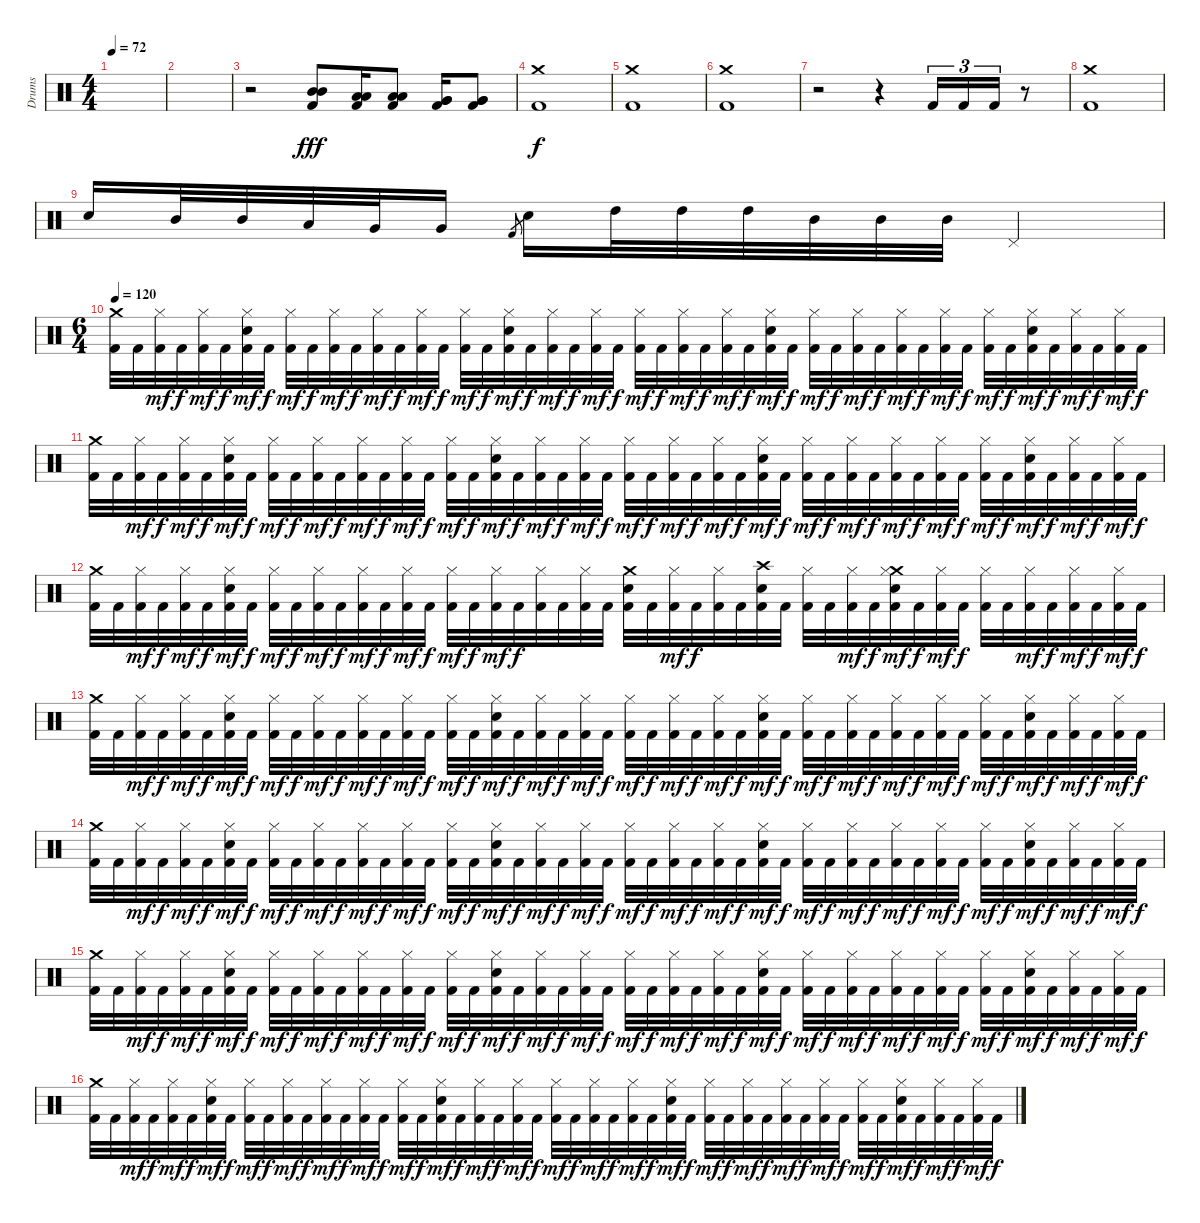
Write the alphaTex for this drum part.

\track ("Drums" "Drums") {instrument percussion}
\staff {score}
\articulation defaults
\ts (4 4)
\tempo 72
\clef neutral
\ks c
|
|
r.2 ("Mid Tom (hit)" "Mid Tom (hit)" "Kick (hit) 2").8{dy fff} ("Low Tom (hit)" "Low Tom (hit)" "Kick (hit) 2").16 ("Low Tom (hit)" "Low Tom (hit)" "Kick (hit) 2").8 ("Very Low Tom (hit)" "Very Low Tom (hit)" "Kick (hit) 2").16 ("Very Low Tom (hit)" "Very Low Tom (hit)" "Kick (hit) 2").8 |
("Crash medium (hit)" "Kick (hit) 2").1{dy f} |
("Crash medium (hit)" "Kick (hit) 2").1 |
("Crash medium (hit)" "Kick (hit) 2").1 |
r.2 r.4 "Kick (hit) 2".16{tu (3 2)} "Kick (hit) 2".16{tu (3 2)} "Kick (hit) 2".16{tu (3 2)} r.8 |
("Crash medium (hit)" "Kick (hit) 2").1 |
"Electric Snare (hit)".16 "Mid Tom (hit)".32 "Mid Tom (hit)".32 "Low Tom (hit)".32 "Very Low Tom (hit)".32 "Very Low Tom (hit)".16 "Kick (hit) 2".8{gr} "Electric Snare (hit)".16 "High Tom (hit)".32 "High Tom (hit)".32 "High Tom (hit)".32 "Mid Tom (hit)".32 "Mid Tom (hit)".32 "Mid Tom (hit)".32 "Pedal Hi-Hat (hit)".2 |
\ts (6 4)
\tempo 120
("Crash medium (hit)" "Kick (hit) 2").32 "Kick (hit) 2".32 ("Hi-Hat (closed)" "Kick (hit) 2").32{dy mf} "Kick (hit) 2".32{dy f} ("Hi-Hat (closed)" "Kick (hit) 2").32{dy mf} "Kick (hit) 2".32{dy f} ("Hi-Hat (closed)" "Electric Snare (hit)" "Kick (hit) 2").32{dy mf} "Kick (hit) 2".32{dy f} ("Hi-Hat (closed)" "Kick (hit) 2").32{dy mf} "Kick (hit) 2".32{dy f} ("Hi-Hat (closed)" "Kick (hit) 2").32{dy mf} "Kick (hit) 2".32{dy f} ("Hi-Hat (closed)" "Kick (hit) 2").32{dy mf} "Kick (hit) 2".32{dy f} ("Hi-Hat (closed)" "Kick (hit) 2").32{dy mf} "Kick (hit) 2".32{dy f} ("Hi-Hat (closed)" "Kick (hit) 2").32{dy mf} "Kick (hit) 2".32{dy f} ("Hi-Hat (closed)" "Electric Snare (hit)" "Kick (hit) 2").32{dy mf} "Kick (hit) 2".32{dy f} ("Hi-Hat (closed)" "Kick (hit) 2").32{dy mf} "Kick (hit) 2".32{dy f} ("Hi-Hat (closed)" "Kick (hit) 2").32{dy mf} "Kick (hit) 2".32{dy f} ("Hi-Hat (closed)" "Kick (hit) 2").32{dy mf} "Kick (hit) 2".32{dy f} ("Hi-Hat (closed)" "Kick (hit) 2").32{dy mf} "Kick (hit) 2".32{dy f} ("Hi-Hat (closed)" "Kick (hit) 2").32{dy mf} "Kick (hit) 2".32{dy f} ("Hi-Hat (closed)" "Electric Snare (hit)" "Kick (hit) 2").32{dy mf} "Kick (hit) 2".32{dy f} ("Hi-Hat (closed)" "Kick (hit) 2").32{dy mf} "Kick (hit) 2".32{dy f} ("Hi-Hat (closed)" "Kick (hit) 2").32{dy mf} "Kick (hit) 2".32{dy f} ("Hi-Hat (closed)" "Kick (hit) 2").32{dy mf} "Kick (hit) 2".32{dy f} ("Hi-Hat (closed)" "Kick (hit) 2").32{dy mf} "Kick (hit) 2".32{dy f} ("Hi-Hat (closed)" "Kick (hit) 2").32{dy mf} "Kick (hit) 2".32{dy f} ("Hi-Hat (closed)" "Electric Snare (hit)" "Kick (hit) 2").32{dy mf} "Kick (hit) 2".32{dy f} ("Hi-Hat (closed)" "Kick (hit) 2").32{dy mf} "Kick (hit) 2".32{dy f} ("Hi-Hat (closed)" "Kick (hit) 2").32{dy mf} "Kick (hit) 2".32{dy f} |
("Crash medium (hit)" "Kick (hit) 2").32 "Kick (hit) 2".32 ("Hi-Hat (closed)" "Kick (hit) 2").32{dy mf} "Kick (hit) 2".32{dy f} ("Hi-Hat (closed)" "Kick (hit) 2").32{dy mf} "Kick (hit) 2".32{dy f} ("Hi-Hat (closed)" "Electric Snare (hit)" "Kick (hit) 2").32{dy mf} "Kick (hit) 2".32{dy f} ("Hi-Hat (closed)" "Kick (hit) 2").32{dy mf} "Kick (hit) 2".32{dy f} ("Hi-Hat (closed)" "Kick (hit) 2").32{dy mf} "Kick (hit) 2".32{dy f} ("Hi-Hat (closed)" "Kick (hit) 2").32{dy mf} "Kick (hit) 2".32{dy f} ("Hi-Hat (closed)" "Kick (hit) 2").32{dy mf} "Kick (hit) 2".32{dy f} ("Hi-Hat (closed)" "Kick (hit) 2").32{dy mf} "Kick (hit) 2".32{dy f} ("Hi-Hat (closed)" "Electric Snare (hit)" "Kick (hit) 2").32{dy mf} "Kick (hit) 2".32{dy f} ("Hi-Hat (closed)" "Kick (hit) 2").32{dy mf} "Kick (hit) 2".32{dy f} ("Hi-Hat (closed)" "Kick (hit) 2").32{dy mf} "Kick (hit) 2".32{dy f} ("Hi-Hat (closed)" "Kick (hit) 2").32{dy mf} "Kick (hit) 2".32{dy f} ("Hi-Hat (closed)" "Kick (hit) 2").32{dy mf} "Kick (hit) 2".32{dy f} ("Hi-Hat (closed)" "Kick (hit) 2").32{dy mf} "Kick (hit) 2".32{dy f} ("Hi-Hat (closed)" "Electric Snare (hit)" "Kick (hit) 2").32{dy mf} "Kick (hit) 2".32{dy f} ("Hi-Hat (closed)" "Kick (hit) 2").32{dy mf} "Kick (hit) 2".32{dy f} ("Hi-Hat (closed)" "Kick (hit) 2").32{dy mf} "Kick (hit) 2".32{dy f} ("Hi-Hat (closed)" "Kick (hit) 2").32{dy mf} "Kick (hit) 2".32{dy f} ("Hi-Hat (closed)" "Kick (hit) 2").32{dy mf} "Kick (hit) 2".32{dy f} ("Hi-Hat (closed)" "Kick (hit) 2").32{dy mf} "Kick (hit) 2".32{dy f} ("Hi-Hat (closed)" "Electric Snare (hit)" "Kick (hit) 2").32{dy mf} "Kick (hit) 2".32{dy f} ("Hi-Hat (closed)" "Kick (hit) 2").32{dy mf} "Kick (hit) 2".32{dy f} ("Hi-Hat (closed)" "Kick (hit) 2").32{dy mf} "Kick (hit) 2".32{dy f} |
("Crash medium (hit)" "Kick (hit) 2").32 "Kick (hit) 2".32 ("Hi-Hat (closed)" "Kick (hit) 2").32{dy mf} "Kick (hit) 2".32{dy f} ("Hi-Hat (closed)" "Kick (hit) 2").32{dy mf} "Kick (hit) 2".32{dy f} ("Hi-Hat (closed)" "Electric Snare (hit)" "Kick (hit) 2").32{dy mf} "Kick (hit) 2".32{dy f} ("Hi-Hat (closed)" "Kick (hit) 2").32{dy mf} "Kick (hit) 2".32{dy f} ("Hi-Hat (closed)" "Kick (hit) 2").32{dy mf} "Kick (hit) 2".32{dy f} ("Hi-Hat (closed)" "Kick (hit) 2").32{dy mf} "Kick (hit) 2".32{dy f} ("Hi-Hat (closed)" "Kick (hit) 2").32{dy mf} "Kick (hit) 2".32{dy f} ("Hi-Hat (closed)" "Kick (hit) 2").32{dy mf} "Kick (hit) 2".32{dy f} ("Hi-Hat (closed)" "Kick (hit) 2").32{dy mf} "Kick (hit) 2".32{dy f} ("Hi-Hat (closed)" "Kick (hit) 2").32 "Kick (hit) 2".32 ("Hi-Hat (closed)" "Kick (hit) 2").32 "Kick (hit) 2".32 ("Crash medium (hit)" "Electric Snare (hit)" "Kick (hit) 2").32 "Kick (hit) 2".32 ("Hi-Hat (closed)" "Kick (hit) 2").32{dy mf} "Kick (hit) 2".32{dy f} ("Hi-Hat (closed)" "Kick (hit) 2").32 "Kick (hit) 2".32 ("Crash high (hit)" "Electric Snare (hit)" "Kick (hit) 2").32 "Kick (hit) 2".32 ("Hi-Hat (closed)" "Kick (hit) 2").32 "Kick (hit) 2".32 ("Hi-Hat (closed)" "Kick (hit) 2").32{dy mf} "Kick (hit) 2".32{dy f} ("Crash medium (hit)" "Hi-Hat (closed)" "Electric Snare (hit)" "Kick (hit) 2").32{dy mf} "Kick (hit) 2".32{dy f} ("Hi-Hat (closed)" "Kick (hit) 2").32{dy mf} "Kick (hit) 2".32{dy f} ("Hi-Hat (closed)" "Kick (hit) 2").32 "Kick (hit) 2".32 ("Hi-Hat (closed)" "Kick (hit) 2").32{dy mf} "Kick (hit) 2".32{dy f} ("Hi-Hat (closed)" "Kick (hit) 2").32{dy mf} "Kick (hit) 2".32{dy f} ("Hi-Hat (closed)" "Kick (hit) 2").32{dy mf} "Kick (hit) 2".32{dy f} |
("Crash medium (hit)" "Kick (hit) 2").32 "Kick (hit) 2".32 ("Hi-Hat (closed)" "Kick (hit) 2").32{dy mf} "Kick (hit) 2".32{dy f} ("Hi-Hat (closed)" "Kick (hit) 2").32{dy mf} "Kick (hit) 2".32{dy f} ("Hi-Hat (closed)" "Electric Snare (hit)" "Kick (hit) 2").32{dy mf} "Kick (hit) 2".32{dy f} ("Hi-Hat (closed)" "Kick (hit) 2").32{dy mf} "Kick (hit) 2".32{dy f} ("Hi-Hat (closed)" "Kick (hit) 2").32{dy mf} "Kick (hit) 2".32{dy f} ("Hi-Hat (closed)" "Kick (hit) 2").32{dy mf} "Kick (hit) 2".32{dy f} ("Hi-Hat (closed)" "Kick (hit) 2").32{dy mf} "Kick (hit) 2".32{dy f} ("Hi-Hat (closed)" "Kick (hit) 2").32{dy mf} "Kick (hit) 2".32{dy f} ("Hi-Hat (closed)" "Electric Snare (hit)" "Kick (hit) 2").32{dy mf} "Kick (hit) 2".32{dy f} ("Hi-Hat (closed)" "Kick (hit) 2").32{dy mf} "Kick (hit) 2".32{dy f} ("Hi-Hat (closed)" "Kick (hit) 2").32{dy mf} "Kick (hit) 2".32{dy f} ("Hi-Hat (closed)" "Kick (hit) 2").32{dy mf} "Kick (hit) 2".32{dy f} ("Hi-Hat (closed)" "Kick (hit) 2").32{dy mf} "Kick (hit) 2".32{dy f} ("Hi-Hat (closed)" "Kick (hit) 2").32{dy mf} "Kick (hit) 2".32{dy f} ("Hi-Hat (closed)" "Electric Snare (hit)" "Kick (hit) 2").32{dy mf} "Kick (hit) 2".32{dy f} ("Hi-Hat (closed)" "Kick (hit) 2").32{dy mf} "Kick (hit) 2".32{dy f} ("Hi-Hat (closed)" "Kick (hit) 2").32{dy mf} "Kick (hit) 2".32{dy f} ("Hi-Hat (closed)" "Kick (hit) 2").32{dy mf} "Kick (hit) 2".32{dy f} ("Hi-Hat (closed)" "Kick (hit) 2").32{dy mf} "Kick (hit) 2".32{dy f} ("Hi-Hat (closed)" "Kick (hit) 2").32{dy mf} "Kick (hit) 2".32{dy f} ("Hi-Hat (closed)" "Electric Snare (hit)" "Kick (hit) 2").32{dy mf} "Kick (hit) 2".32{dy f} ("Hi-Hat (closed)" "Kick (hit) 2").32{dy mf} "Kick (hit) 2".32{dy f} ("Hi-Hat (closed)" "Kick (hit) 2").32{dy mf} "Kick (hit) 2".32{dy f} |
("Crash medium (hit)" "Kick (hit) 2").32 "Kick (hit) 2".32 ("Hi-Hat (closed)" "Kick (hit) 2").32{dy mf} "Kick (hit) 2".32{dy f} ("Hi-Hat (closed)" "Kick (hit) 2").32{dy mf} "Kick (hit) 2".32{dy f} ("Hi-Hat (closed)" "Electric Snare (hit)" "Kick (hit) 2").32{dy mf} "Kick (hit) 2".32{dy f} ("Hi-Hat (closed)" "Kick (hit) 2").32{dy mf} "Kick (hit) 2".32{dy f} ("Hi-Hat (closed)" "Kick (hit) 2").32{dy mf} "Kick (hit) 2".32{dy f} ("Hi-Hat (closed)" "Kick (hit) 2").32{dy mf} "Kick (hit) 2".32{dy f} ("Hi-Hat (closed)" "Kick (hit) 2").32{dy mf} "Kick (hit) 2".32{dy f} ("Hi-Hat (closed)" "Kick (hit) 2").32{dy mf} "Kick (hit) 2".32{dy f} ("Hi-Hat (closed)" "Electric Snare (hit)" "Kick (hit) 2").32{dy mf} "Kick (hit) 2".32{dy f} ("Hi-Hat (closed)" "Kick (hit) 2").32{dy mf} "Kick (hit) 2".32{dy f} ("Hi-Hat (closed)" "Kick (hit) 2").32{dy mf} "Kick (hit) 2".32{dy f} ("Hi-Hat (closed)" "Kick (hit) 2").32{dy mf} "Kick (hit) 2".32{dy f} ("Hi-Hat (closed)" "Kick (hit) 2").32{dy mf} "Kick (hit) 2".32{dy f} ("Hi-Hat (closed)" "Kick (hit) 2").32{dy mf} "Kick (hit) 2".32{dy f} ("Hi-Hat (closed)" "Electric Snare (hit)" "Kick (hit) 2").32{dy mf} "Kick (hit) 2".32{dy f} ("Hi-Hat (closed)" "Kick (hit) 2").32{dy mf} "Kick (hit) 2".32{dy f} ("Hi-Hat (closed)" "Kick (hit) 2").32{dy mf} "Kick (hit) 2".32{dy f} ("Hi-Hat (closed)" "Kick (hit) 2").32{dy mf} "Kick (hit) 2".32{dy f} ("Hi-Hat (closed)" "Kick (hit) 2").32{dy mf} "Kick (hit) 2".32{dy f} ("Hi-Hat (closed)" "Kick (hit) 2").32{dy mf} "Kick (hit) 2".32{dy f} ("Hi-Hat (closed)" "Electric Snare (hit)" "Kick (hit) 2").32{dy mf} "Kick (hit) 2".32{dy f} ("Hi-Hat (closed)" "Kick (hit) 2").32{dy mf} "Kick (hit) 2".32{dy f} ("Hi-Hat (closed)" "Kick (hit) 2").32{dy mf} "Kick (hit) 2".32{dy f} |
("Crash medium (hit)" "Kick (hit) 2").32 "Kick (hit) 2".32 ("Hi-Hat (closed)" "Kick (hit) 2").32{dy mf} "Kick (hit) 2".32{dy f} ("Hi-Hat (closed)" "Kick (hit) 2").32{dy mf} "Kick (hit) 2".32{dy f} ("Hi-Hat (closed)" "Electric Snare (hit)" "Kick (hit) 2").32{dy mf} "Kick (hit) 2".32{dy f} ("Hi-Hat (closed)" "Kick (hit) 2").32{dy mf} "Kick (hit) 2".32{dy f} ("Hi-Hat (closed)" "Kick (hit) 2").32{dy mf} "Kick (hit) 2".32{dy f} ("Hi-Hat (closed)" "Kick (hit) 2").32{dy mf} "Kick (hit) 2".32{dy f} ("Hi-Hat (closed)" "Kick (hit) 2").32{dy mf} "Kick (hit) 2".32{dy f} ("Hi-Hat (closed)" "Kick (hit) 2").32{dy mf} "Kick (hit) 2".32{dy f} ("Hi-Hat (closed)" "Electric Snare (hit)" "Kick (hit) 2").32{dy mf} "Kick (hit) 2".32{dy f} ("Hi-Hat (closed)" "Kick (hit) 2").32{dy mf} "Kick (hit) 2".32{dy f} ("Hi-Hat (closed)" "Kick (hit) 2").32{dy mf} "Kick (hit) 2".32{dy f} ("Hi-Hat (closed)" "Kick (hit) 2").32{dy mf} "Kick (hit) 2".32{dy f} ("Hi-Hat (closed)" "Kick (hit) 2").32{dy mf} "Kick (hit) 2".32{dy f} ("Hi-Hat (closed)" "Kick (hit) 2").32{dy mf} "Kick (hit) 2".32{dy f} ("Hi-Hat (closed)" "Electric Snare (hit)" "Kick (hit) 2").32{dy mf} "Kick (hit) 2".32{dy f} ("Hi-Hat (closed)" "Kick (hit) 2").32{dy mf} "Kick (hit) 2".32{dy f} ("Hi-Hat (closed)" "Kick (hit) 2").32{dy mf} "Kick (hit) 2".32{dy f} ("Hi-Hat (closed)" "Kick (hit) 2").32{dy mf} "Kick (hit) 2".32{dy f} ("Hi-Hat (closed)" "Kick (hit) 2").32{dy mf} "Kick (hit) 2".32{dy f} ("Hi-Hat (closed)" "Kick (hit) 2").32{dy mf} "Kick (hit) 2".32{dy f} ("Hi-Hat (closed)" "Electric Snare (hit)" "Kick (hit) 2").32{dy mf} "Kick (hit) 2".32{dy f} ("Hi-Hat (closed)" "Kick (hit) 2").32{dy mf} "Kick (hit) 2".32{dy f} ("Hi-Hat (closed)" "Kick (hit) 2").32{dy mf} "Kick (hit) 2".32{dy f} |
("Crash medium (hit)" "Kick (hit) 2").32 "Kick (hit) 2".32 ("Hi-Hat (closed)" "Kick (hit) 2").32{dy mf} "Kick (hit) 2".32{dy f} ("Hi-Hat (closed)" "Kick (hit) 2").32{dy mf} "Kick (hit) 2".32{dy f} ("Hi-Hat (closed)" "Electric Snare (hit)" "Kick (hit) 2").32{dy mf} "Kick (hit) 2".32{dy f} ("Hi-Hat (closed)" "Kick (hit) 2").32{dy mf} "Kick (hit) 2".32{dy f} ("Hi-Hat (closed)" "Kick (hit) 2").32{dy mf} "Kick (hit) 2".32{dy f} ("Hi-Hat (closed)" "Kick (hit) 2").32{dy mf} "Kick (hit) 2".32{dy f} ("Hi-Hat (closed)" "Kick (hit) 2").32{dy mf} "Kick (hit) 2".32{dy f} ("Hi-Hat (closed)" "Kick (hit) 2").32{dy mf} "Kick (hit) 2".32{dy f} ("Hi-Hat (closed)" "Electric Snare (hit)" "Kick (hit) 2").32{dy mf} "Kick (hit) 2".32{dy f} ("Hi-Hat (closed)" "Kick (hit) 2").32{dy mf} "Kick (hit) 2".32{dy f} ("Hi-Hat (closed)" "Kick (hit) 2").32{dy mf} "Kick (hit) 2".32{dy f} ("Hi-Hat (closed)" "Kick (hit) 2").32{dy mf} "Kick (hit) 2".32{dy f} ("Hi-Hat (closed)" "Kick (hit) 2").32{dy mf} "Kick (hit) 2".32{dy f} ("Hi-Hat (closed)" "Kick (hit) 2").32{dy mf} "Kick (hit) 2".32{dy f} ("Hi-Hat (closed)" "Electric Snare (hit)" "Kick (hit) 2").32{dy mf} "Kick (hit) 2".32{dy f} ("Hi-Hat (closed)" "Kick (hit) 2").32{dy mf} "Kick (hit) 2".32{dy f} ("Hi-Hat (closed)" "Kick (hit) 2").32{dy mf} "Kick (hit) 2".32{dy f} ("Hi-Hat (closed)" "Kick (hit) 2").32{dy mf} "Kick (hit) 2".32{dy f} ("Hi-Hat (closed)" "Kick (hit) 2").32{dy mf} "Kick (hit) 2".32{dy f} ("Hi-Hat (closed)" "Kick (hit) 2").32{dy mf} "Kick (hit) 2".32{dy f} ("Hi-Hat (closed)" "Electric Snare (hit)" "Kick (hit) 2").32{dy mf} "Kick (hit) 2".32{dy f} ("Hi-Hat (closed)" "Kick (hit) 2").32{dy mf} "Kick (hit) 2".32{dy f} ("Hi-Hat (closed)" "Kick (hit) 2").32{dy mf} "Kick (hit) 2".32{dy f}
